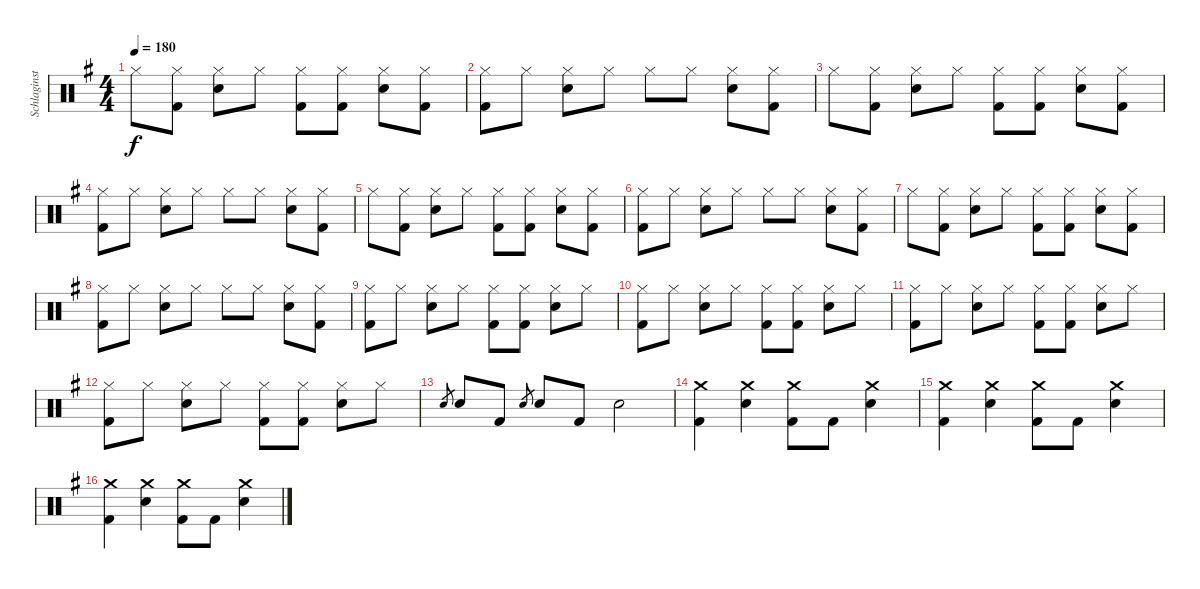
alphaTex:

\track ("Schlaginstrumente - Auswahl" "Schlaginst") {instrument percussion}
\staff {score}
\articulation defaults
\ts (4 4)
\tempo 180
\clef neutral
\ks g "Hi-Hat (closed)".8{dy f}
("Hi-Hat (closed)" "Kick (hit) 2").8 ("Hi-Hat (closed)" "Electric Snare (hit)").8 "Hi-Hat (closed)".8 ("Hi-Hat (closed)" "Kick (hit) 2").8 ("Hi-Hat (closed)" "Kick (hit) 2").8 ("Hi-Hat (closed)" "Electric Snare (hit)").8 ("Hi-Hat (closed)" "Kick (hit) 2").8 |
("Hi-Hat (closed)" "Kick (hit) 2").8 "Hi-Hat (closed)".8 ("Hi-Hat (closed)" "Electric Snare (hit)").8 "Hi-Hat (closed)".8 "Hi-Hat (closed)".8 "Hi-Hat (closed)".8 ("Hi-Hat (closed)" "Electric Snare (hit)").8 ("Hi-Hat (closed)" "Kick (hit) 2").8 |
"Hi-Hat (closed)".8 ("Hi-Hat (closed)" "Kick (hit) 2").8 ("Hi-Hat (closed)" "Electric Snare (hit)").8 "Hi-Hat (closed)".8 ("Hi-Hat (closed)" "Kick (hit) 2").8 ("Hi-Hat (closed)" "Kick (hit) 2").8 ("Hi-Hat (closed)" "Electric Snare (hit)").8 ("Hi-Hat (closed)" "Kick (hit) 2").8 |
("Hi-Hat (closed)" "Kick (hit) 2").8 "Hi-Hat (closed)".8 ("Hi-Hat (closed)" "Electric Snare (hit)").8 "Hi-Hat (closed)".8 "Hi-Hat (closed)".8 "Hi-Hat (closed)".8 ("Hi-Hat (closed)" "Electric Snare (hit)").8 ("Hi-Hat (closed)" "Kick (hit) 2").8 |
"Hi-Hat (closed)".8 ("Hi-Hat (closed)" "Kick (hit) 2").8 ("Hi-Hat (closed)" "Electric Snare (hit)").8 "Hi-Hat (closed)".8 ("Hi-Hat (closed)" "Kick (hit) 2").8 ("Hi-Hat (closed)" "Kick (hit) 2").8 ("Hi-Hat (closed)" "Electric Snare (hit)").8 ("Hi-Hat (closed)" "Kick (hit) 2").8 |
("Hi-Hat (closed)" "Kick (hit) 2").8 "Hi-Hat (closed)".8 ("Hi-Hat (closed)" "Electric Snare (hit)").8 "Hi-Hat (closed)".8 "Hi-Hat (closed)".8 "Hi-Hat (closed)".8 ("Hi-Hat (closed)" "Electric Snare (hit)").8 ("Hi-Hat (closed)" "Kick (hit) 2").8 |
"Hi-Hat (closed)".8 ("Hi-Hat (closed)" "Kick (hit) 2").8 ("Hi-Hat (closed)" "Electric Snare (hit)").8 "Hi-Hat (closed)".8 ("Hi-Hat (closed)" "Kick (hit) 2").8 ("Hi-Hat (closed)" "Kick (hit) 2").8 ("Hi-Hat (closed)" "Electric Snare (hit)").8 ("Hi-Hat (closed)" "Kick (hit) 2").8 |
("Hi-Hat (closed)" "Kick (hit) 2").8 "Hi-Hat (closed)".8 ("Hi-Hat (closed)" "Electric Snare (hit)").8 "Hi-Hat (closed)".8 "Hi-Hat (closed)".8 "Hi-Hat (closed)".8 ("Hi-Hat (closed)" "Electric Snare (hit)").8 ("Hi-Hat (closed)" "Kick (hit) 2").8 |
("Hi-Hat (closed)" "Kick (hit) 2").8 "Hi-Hat (closed)".8 ("Hi-Hat (closed)" "Electric Snare (hit)").8 "Hi-Hat (closed)".8 ("Hi-Hat (closed)" "Kick (hit) 2").8 ("Hi-Hat (closed)" "Kick (hit) 2").8 ("Hi-Hat (closed)" "Electric Snare (hit)").8 "Hi-Hat (closed)".8 |
("Hi-Hat (closed)" "Kick (hit) 2").8 "Hi-Hat (closed)".8 ("Hi-Hat (closed)" "Electric Snare (hit)").8 "Hi-Hat (closed)".8 ("Hi-Hat (closed)" "Kick (hit) 2").8 ("Hi-Hat (closed)" "Kick (hit) 2").8 ("Hi-Hat (closed)" "Electric Snare (hit)").8 "Hi-Hat (closed)".8 |
("Hi-Hat (closed)" "Kick (hit) 2").8 "Hi-Hat (closed)".8 ("Hi-Hat (closed)" "Electric Snare (hit)").8 "Hi-Hat (closed)".8 ("Hi-Hat (closed)" "Kick (hit) 2").8 ("Hi-Hat (closed)" "Kick (hit) 2").8 ("Hi-Hat (closed)" "Electric Snare (hit)").8 "Hi-Hat (closed)".8 |
("Hi-Hat (closed)" "Kick (hit) 2").8 "Hi-Hat (closed)".8 ("Hi-Hat (closed)" "Electric Snare (hit)").8 "Hi-Hat (closed)".8 ("Hi-Hat (closed)" "Kick (hit) 2").8 ("Hi-Hat (closed)" "Kick (hit) 2").8 ("Hi-Hat (closed)" "Electric Snare (hit)").8 "Hi-Hat (closed)".8 |
"Electric Snare (hit)".8{gr} "Electric Snare (hit)".8 "Kick (hit) 2".8 "Electric Snare (hit)".8{gr} "Electric Snare (hit)".8 "Kick (hit) 2".8 "Electric Snare (hit)".2 |
("Crash medium (hit)" "Kick (hit) 2").4 ("Crash medium (hit)" "Electric Snare (hit)").4 ("Crash medium (hit)" "Kick (hit) 2").8 "Kick (hit) 2".8 ("Crash medium (hit)" "Electric Snare (hit)").4 |
("Crash medium (hit)" "Kick (hit) 2").4 ("Crash medium (hit)" "Electric Snare (hit)").4 ("Crash medium (hit)" "Kick (hit) 2").8 "Kick (hit) 2".8 ("Crash medium (hit)" "Electric Snare (hit)").4 |
("Crash medium (hit)" "Kick (hit) 2").4 ("Crash medium (hit)" "Electric Snare (hit)").4 ("Crash medium (hit)" "Kick (hit) 2").8 "Kick (hit) 2".8 ("Crash medium (hit)" "Electric Snare (hit)").4
